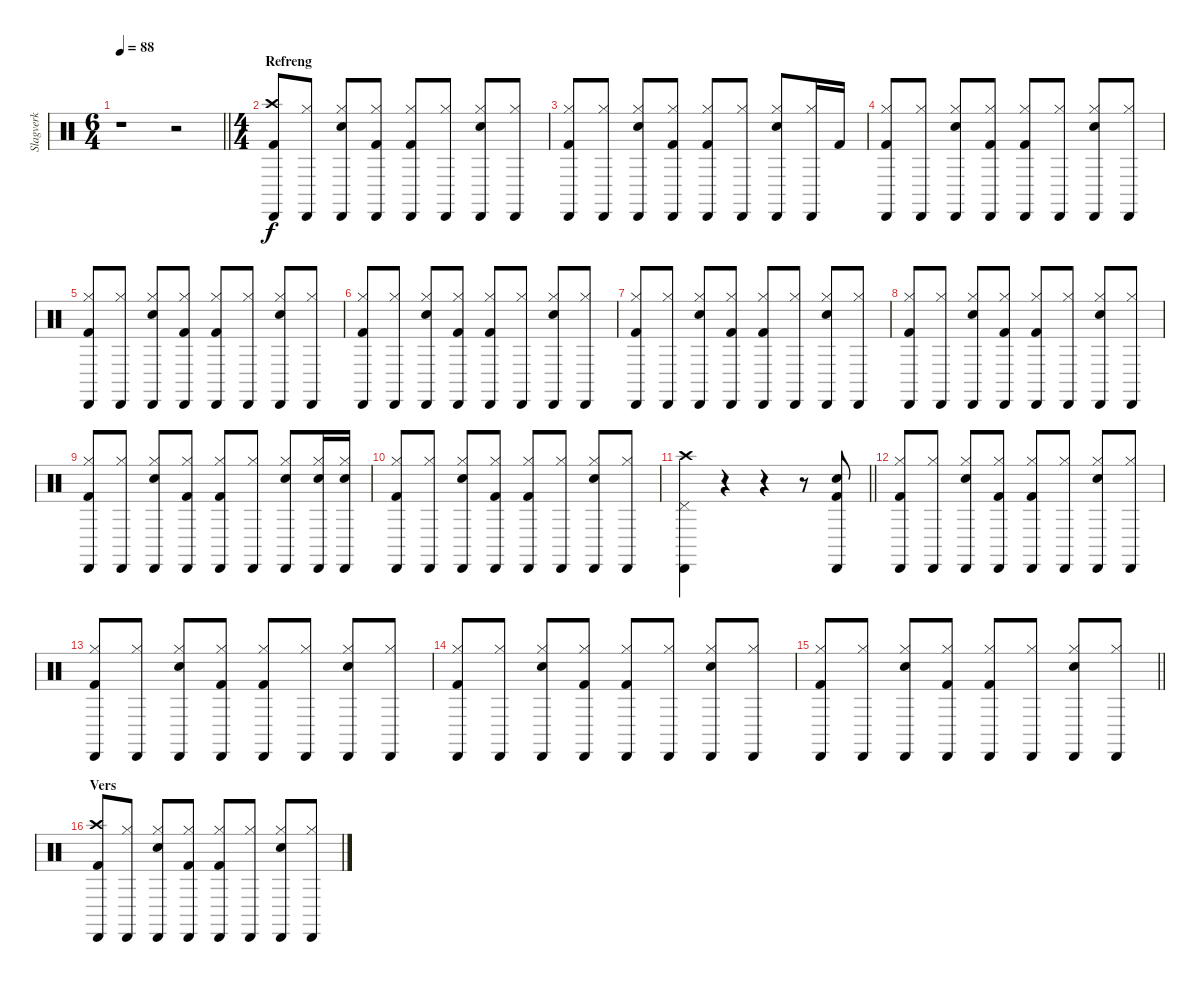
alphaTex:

\track ("Slagverk" "Slagverk") {instrument percussion}
\staff {score}
\articulation defaults
\ts (6 4)
\tempo 88
\clef neutral
\barLineRight lightlight
\ks c
r.1{dy f} r.2 |
\ts (4 4)
\section ("" "Refreng")
("Crash high (hit)" "Cabasa (hit)" "Kick (hit) 2").8 ("Hi-Hat (closed)" "Cabasa (hit)").8 ("Hi-Hat (closed)" "Snare (hit) 2" "Cabasa (hit)").8 ("Hi-Hat (closed)" "Cabasa (hit)" "Kick (hit) 2").8 ("Hi-Hat (closed)" "Cabasa (hit)" "Kick (hit) 2").8 ("Hi-Hat (closed)" "Cabasa (hit)").8 ("Hi-Hat (closed)" "Snare (hit) 2" "Cabasa (hit)").8 ("Hi-Hat (closed)" "Cabasa (hit)").8 |
("Hi-Hat (closed)" "Cabasa (hit)" "Kick (hit) 2").8 ("Hi-Hat (closed)" "Cabasa (hit)").8 ("Hi-Hat (closed)" "Snare (hit) 2" "Cabasa (hit)").8 ("Hi-Hat (closed)" "Cabasa (hit)" "Kick (hit) 2").8 ("Hi-Hat (closed)" "Cabasa (hit)" "Kick (hit) 2").8 ("Hi-Hat (closed)" "Cabasa (hit)").8 ("Hi-Hat (closed)" "Snare (hit) 2" "Cabasa (hit)").8 ("Hi-Hat (closed)" "Cabasa (hit)").16 "Kick (hit) 2".16 |
("Hi-Hat (closed)" "Cabasa (hit)" "Kick (hit) 2").8 ("Hi-Hat (closed)" "Cabasa (hit)").8 ("Hi-Hat (closed)" "Snare (hit) 2" "Cabasa (hit)").8 ("Hi-Hat (closed)" "Cabasa (hit)" "Kick (hit) 2").8 ("Hi-Hat (closed)" "Cabasa (hit)" "Kick (hit) 2").8 ("Hi-Hat (closed)" "Cabasa (hit)").8 ("Hi-Hat (closed)" "Snare (hit) 2" "Cabasa (hit)").8 ("Hi-Hat (closed)" "Cabasa (hit)").8 |
("Hi-Hat (closed)" "Cabasa (hit)" "Kick (hit) 2").8 ("Hi-Hat (closed)" "Cabasa (hit)").8 ("Hi-Hat (closed)" "Snare (hit) 2" "Cabasa (hit)").8 ("Hi-Hat (closed)" "Cabasa (hit)" "Kick (hit) 2").8 ("Hi-Hat (closed)" "Cabasa (hit)" "Kick (hit) 2").8 ("Hi-Hat (closed)" "Cabasa (hit)").8 ("Hi-Hat (closed)" "Snare (hit) 2" "Cabasa (hit)").8 ("Hi-Hat (closed)" "Cabasa (hit)").8 |
("Hi-Hat (closed)" "Cabasa (hit)" "Kick (hit) 2").8 ("Hi-Hat (closed)" "Cabasa (hit)").8 ("Hi-Hat (closed)" "Snare (hit) 2" "Cabasa (hit)").8 ("Hi-Hat (closed)" "Cabasa (hit)" "Kick (hit) 2").8 ("Hi-Hat (closed)" "Cabasa (hit)" "Kick (hit) 2").8 ("Hi-Hat (closed)" "Cabasa (hit)").8 ("Hi-Hat (closed)" "Snare (hit) 2" "Cabasa (hit)").8 ("Hi-Hat (closed)" "Cabasa (hit)").8 |
("Hi-Hat (closed)" "Cabasa (hit)" "Kick (hit) 2").8 ("Hi-Hat (closed)" "Cabasa (hit)").8 ("Hi-Hat (closed)" "Snare (hit) 2" "Cabasa (hit)").8 ("Hi-Hat (closed)" "Cabasa (hit)" "Kick (hit) 2").8 ("Hi-Hat (closed)" "Cabasa (hit)" "Kick (hit) 2").8 ("Hi-Hat (closed)" "Cabasa (hit)").8 ("Hi-Hat (closed)" "Snare (hit) 2" "Cabasa (hit)").8 ("Hi-Hat (closed)" "Cabasa (hit)").8 |
("Hi-Hat (closed)" "Cabasa (hit)" "Kick (hit) 2").8 ("Hi-Hat (closed)" "Cabasa (hit)").8 ("Hi-Hat (closed)" "Snare (hit) 2" "Cabasa (hit)").8 ("Hi-Hat (closed)" "Cabasa (hit)" "Kick (hit) 2").8 ("Hi-Hat (closed)" "Cabasa (hit)" "Kick (hit) 2").8 ("Hi-Hat (closed)" "Cabasa (hit)").8 ("Hi-Hat (closed)" "Snare (hit) 2" "Cabasa (hit)").8 ("Hi-Hat (closed)" "Cabasa (hit)").8 |
("Hi-Hat (closed)" "Cabasa (hit)" "Kick (hit) 2").8 ("Hi-Hat (closed)" "Cabasa (hit)").8 ("Hi-Hat (closed)" "Snare (hit) 2" "Cabasa (hit)").8 ("Hi-Hat (closed)" "Cabasa (hit)" "Kick (hit) 2").8 ("Hi-Hat (closed)" "Cabasa (hit)" "Kick (hit) 2").8 ("Hi-Hat (closed)" "Cabasa (hit)").8 ("Hi-Hat (closed)" "Snare (hit) 2" "Cabasa (hit)").8 ("Hi-Hat (closed)" "Snare (hit) 2" "Cabasa (hit)").16 ("Hi-Hat (closed)" "Snare (hit) 2" "Cabasa (hit)").16 |
("Hi-Hat (closed)" "Cabasa (hit)" "Kick (hit) 2").8 ("Hi-Hat (closed)" "Cabasa (hit)").8 ("Hi-Hat (closed)" "Snare (hit) 2" "Cabasa (hit)").8 ("Hi-Hat (closed)" "Cabasa (hit)" "Kick (hit) 2").8 ("Hi-Hat (closed)" "Cabasa (hit)" "Kick (hit) 2").8 ("Hi-Hat (closed)" "Cabasa (hit)").8 ("Hi-Hat (closed)" "Snare (hit) 2" "Cabasa (hit)").8 ("Hi-Hat (closed)" "Cabasa (hit)").8 |
\barLineRight lightlight
("Crash high (hit)" "Pedal Hi-Hat (hit)" "Cabasa (hit)").4 r.4 r.4 r.8 ("Snare (hit) 2" "Cabasa (hit)" "Kick (hit) 2").8 |
("Hi-Hat (closed)" "Cabasa (hit)" "Kick (hit) 2").8 ("Hi-Hat (closed)" "Cabasa (hit)").8 ("Hi-Hat (closed)" "Snare (hit) 2" "Cabasa (hit)").8 ("Hi-Hat (closed)" "Cabasa (hit)" "Kick (hit) 2").8 ("Hi-Hat (closed)" "Cabasa (hit)" "Kick (hit) 2").8 ("Hi-Hat (closed)" "Cabasa (hit)").8 ("Hi-Hat (closed)" "Snare (hit) 2" "Cabasa (hit)").8 ("Hi-Hat (closed)" "Cabasa (hit)").8 |
("Hi-Hat (closed)" "Cabasa (hit)" "Kick (hit) 2").8 ("Hi-Hat (closed)" "Cabasa (hit)").8 ("Hi-Hat (closed)" "Snare (hit) 2" "Cabasa (hit)").8 ("Hi-Hat (closed)" "Cabasa (hit)" "Kick (hit) 2").8 ("Hi-Hat (closed)" "Cabasa (hit)" "Kick (hit) 2").8 ("Hi-Hat (closed)" "Cabasa (hit)").8 ("Hi-Hat (closed)" "Snare (hit) 2" "Cabasa (hit)").8 ("Hi-Hat (closed)" "Cabasa (hit)").8 |
("Hi-Hat (closed)" "Cabasa (hit)" "Kick (hit) 2").8 ("Hi-Hat (closed)" "Cabasa (hit)").8 ("Hi-Hat (closed)" "Snare (hit) 2" "Cabasa (hit)").8 ("Hi-Hat (closed)" "Cabasa (hit)" "Kick (hit) 2").8 ("Hi-Hat (closed)" "Cabasa (hit)" "Kick (hit) 2").8 ("Hi-Hat (closed)" "Cabasa (hit)").8 ("Hi-Hat (closed)" "Snare (hit) 2" "Cabasa (hit)").8 ("Hi-Hat (closed)" "Cabasa (hit)").8 |
\barLineRight lightlight
("Hi-Hat (closed)" "Cabasa (hit)" "Kick (hit) 2").8 ("Hi-Hat (closed)" "Cabasa (hit)").8 ("Hi-Hat (closed)" "Snare (hit) 2" "Cabasa (hit)").8 ("Hi-Hat (closed)" "Cabasa (hit)" "Kick (hit) 2").8 ("Hi-Hat (closed)" "Cabasa (hit)" "Kick (hit) 2").8 ("Hi-Hat (closed)" "Cabasa (hit)").8 ("Hi-Hat (closed)" "Snare (hit) 2" "Cabasa (hit)").8 ("Hi-Hat (closed)" "Cabasa (hit)").8 |
\section ("" "Vers")
("Crash high (hit)" "Cabasa (hit)" "Kick (hit) 2").8 ("Hi-Hat (closed)" "Cabasa (hit)").8 ("Hi-Hat (closed)" "Snare (hit) 2" "Cabasa (hit)").8 ("Hi-Hat (closed)" "Cabasa (hit)" "Kick (hit) 2").8 ("Hi-Hat (closed)" "Cabasa (hit)" "Kick (hit) 2").8 ("Hi-Hat (closed)" "Cabasa (hit)").8 ("Hi-Hat (closed)" "Snare (hit) 2" "Cabasa (hit)").8 ("Hi-Hat (closed)" "Cabasa (hit)").8
